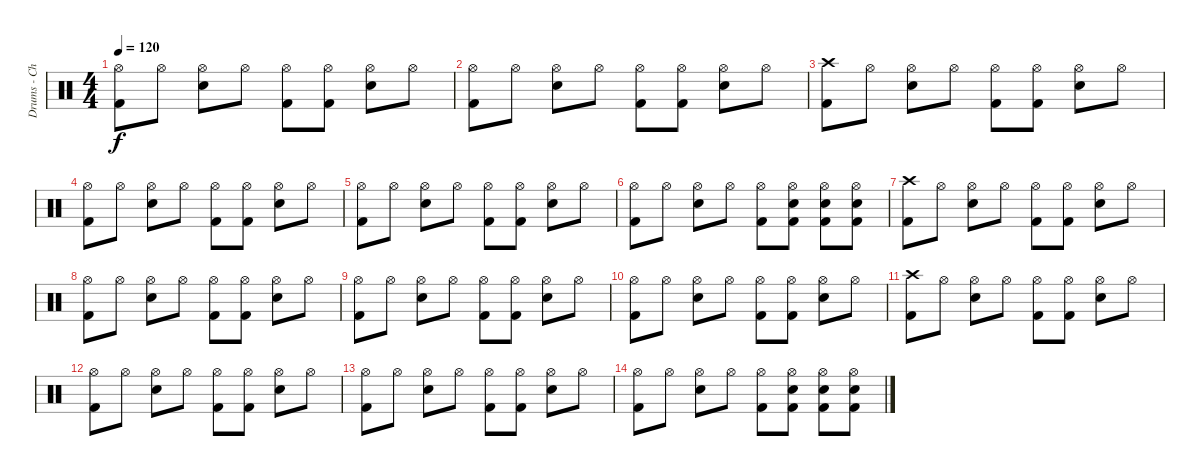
\track ("Drums - Chris" "Drums - Ch") {instrument percussion}
\staff {score}
\articulation defaults
\ts (4 4)
\tempo 120
\clef neutral
\ks c
("Hi-Hat (open)" "Kick (hit) 2").8{dy f} "Hi-Hat (open)".8 ("Hi-Hat (open)" "Snare (hit) 2").8 "Hi-Hat (open)".8 ("Hi-Hat (open)" "Kick (hit) 2").8 ("Hi-Hat (open)" "Kick (hit) 2").8 ("Hi-Hat (open)" "Snare (hit) 2").8 "Hi-Hat (open)".8 |
("Hi-Hat (open)" "Kick (hit) 2").8 "Hi-Hat (open)".8 ("Hi-Hat (open)" "Snare (hit) 2").8 "Hi-Hat (open)".8 ("Hi-Hat (open)" "Kick (hit) 2").8 ("Hi-Hat (open)" "Kick (hit) 2").8 ("Hi-Hat (open)" "Snare (hit) 2").8 "Hi-Hat (open)".8 |
("Crash high (hit)" "Kick (hit) 2").8 "Hi-Hat (open)".8 ("Hi-Hat (open)" "Snare (hit) 2").8 "Hi-Hat (open)".8 ("Hi-Hat (open)" "Kick (hit) 2").8 ("Hi-Hat (open)" "Kick (hit) 2").8 ("Hi-Hat (open)" "Snare (hit) 2").8 "Hi-Hat (open)".8 |
("Hi-Hat (open)" "Kick (hit) 2").8 "Hi-Hat (open)".8 ("Hi-Hat (open)" "Snare (hit) 2").8 "Hi-Hat (open)".8 ("Hi-Hat (open)" "Kick (hit) 2").8 ("Hi-Hat (open)" "Kick (hit) 2").8 ("Hi-Hat (open)" "Snare (hit) 2").8 "Hi-Hat (open)".8 |
("Hi-Hat (open)" "Kick (hit) 2").8 "Hi-Hat (open)".8 ("Hi-Hat (open)" "Snare (hit) 2").8 "Hi-Hat (open)".8 ("Hi-Hat (open)" "Kick (hit) 2").8 ("Hi-Hat (open)" "Kick (hit) 2").8 ("Hi-Hat (open)" "Snare (hit) 2").8 "Hi-Hat (open)".8 |
("Hi-Hat (open)" "Kick (hit) 2").8 "Hi-Hat (open)".8 ("Hi-Hat (open)" "Snare (hit) 2").8 "Hi-Hat (open)".8 ("Hi-Hat (open)" "Kick (hit) 2").8 ("Hi-Hat (open)" "Snare (hit) 2" "Kick (hit) 2").8 ("Hi-Hat (open)" "Snare (hit) 2" "Kick (hit) 2").8 ("Hi-Hat (open)" "Snare (hit) 2" "Kick (hit) 2").8 |
("Crash high (hit)" "Kick (hit) 2").8 "Hi-Hat (open)".8 ("Hi-Hat (open)" "Snare (hit) 2").8 "Hi-Hat (open)".8 ("Hi-Hat (open)" "Kick (hit) 2").8 ("Hi-Hat (open)" "Kick (hit) 2").8 ("Hi-Hat (open)" "Snare (hit) 2").8 "Hi-Hat (open)".8 |
("Hi-Hat (open)" "Kick (hit) 2").8 "Hi-Hat (open)".8 ("Hi-Hat (open)" "Snare (hit) 2").8 "Hi-Hat (open)".8 ("Hi-Hat (open)" "Kick (hit) 2").8 ("Hi-Hat (open)" "Kick (hit) 2").8 ("Hi-Hat (open)" "Snare (hit) 2").8 "Hi-Hat (open)".8 |
("Hi-Hat (open)" "Kick (hit) 2").8 "Hi-Hat (open)".8 ("Hi-Hat (open)" "Snare (hit) 2").8 "Hi-Hat (open)".8 ("Hi-Hat (open)" "Kick (hit) 2").8 ("Hi-Hat (open)" "Kick (hit) 2").8 ("Hi-Hat (open)" "Snare (hit) 2").8 "Hi-Hat (open)".8 |
("Hi-Hat (open)" "Kick (hit) 2").8 "Hi-Hat (open)".8 ("Hi-Hat (open)" "Snare (hit) 2").8 "Hi-Hat (open)".8 ("Hi-Hat (open)" "Kick (hit) 2").8 ("Hi-Hat (open)" "Kick (hit) 2").8 ("Hi-Hat (open)" "Snare (hit) 2").8 "Hi-Hat (open)".8 |
("Crash high (hit)" "Kick (hit) 2").8 "Hi-Hat (open)".8 ("Hi-Hat (open)" "Snare (hit) 2").8 "Hi-Hat (open)".8 ("Hi-Hat (open)" "Kick (hit) 2").8 ("Hi-Hat (open)" "Kick (hit) 2").8 ("Hi-Hat (open)" "Snare (hit) 2").8 "Hi-Hat (open)".8 |
("Hi-Hat (open)" "Kick (hit) 2").8 "Hi-Hat (open)".8 ("Hi-Hat (open)" "Snare (hit) 2").8 "Hi-Hat (open)".8 ("Hi-Hat (open)" "Kick (hit) 2").8 ("Hi-Hat (open)" "Kick (hit) 2").8 ("Hi-Hat (open)" "Snare (hit) 2").8 "Hi-Hat (open)".8 |
("Hi-Hat (open)" "Kick (hit) 2").8 "Hi-Hat (open)".8 ("Hi-Hat (open)" "Snare (hit) 2").8 "Hi-Hat (open)".8 ("Hi-Hat (open)" "Kick (hit) 2").8 ("Hi-Hat (open)" "Kick (hit) 2").8 ("Hi-Hat (open)" "Snare (hit) 2").8 "Hi-Hat (open)".8 |
("Hi-Hat (open)" "Kick (hit) 2").8 "Hi-Hat (open)".8 ("Hi-Hat (open)" "Snare (hit) 2").8 "Hi-Hat (open)".8 ("Hi-Hat (open)" "Kick (hit) 2").8 ("Hi-Hat (open)" "Snare (hit) 2" "Kick (hit) 2").8 ("Hi-Hat (open)" "Snare (hit) 2" "Kick (hit) 2").8 ("Hi-Hat (open)" "Snare (hit) 2" "Kick (hit) 2").8
